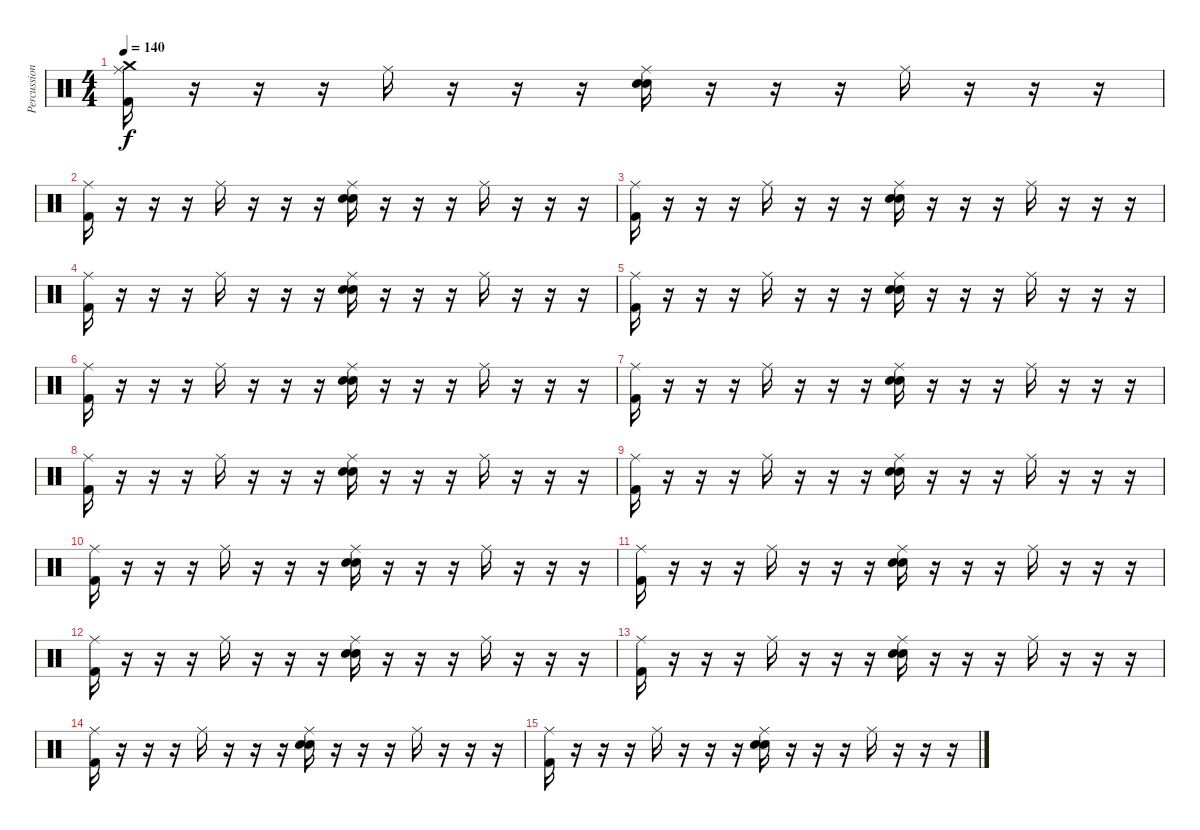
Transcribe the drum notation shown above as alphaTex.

\track ("Percussion" "Percussion") {instrument percussion}
\staff {score}
\articulation defaults
\ts (4 4)
\tempo 140
\clef neutral
\ks c
("Crash medium (hit)" "Ride (middle)" "Kick (hit) 2").16{dy f} r.16 r.16 r.16 "Ride (middle)".16 r.16 r.16 r.16 ("Ride (middle)" "Hand Clap (hit)" "Snare (hit) 2").16 r.16 r.16 r.16 "Ride (middle)".16 r.16 r.16 r.16 |
("Ride (middle)" "Kick (hit) 2").16 r.16 r.16 r.16 "Ride (middle)".16 r.16 r.16 r.16 ("Ride (middle)" "Hand Clap (hit)" "Snare (hit) 2").16 r.16 r.16 r.16 "Ride (middle)".16 r.16 r.16 r.16 |
("Ride (middle)" "Kick (hit) 2").16 r.16 r.16 r.16 "Ride (middle)".16 r.16 r.16 r.16 ("Ride (middle)" "Hand Clap (hit)" "Snare (hit) 2").16 r.16 r.16 r.16 "Ride (middle)".16 r.16 r.16 r.16 |
("Ride (middle)" "Kick (hit) 2").16 r.16 r.16 r.16 "Ride (middle)".16 r.16 r.16 r.16 ("Ride (middle)" "Hand Clap (hit)" "Snare (hit) 2").16 r.16 r.16 r.16 "Ride (middle)".16 r.16 r.16 r.16 |
("Ride (middle)" "Kick (hit) 2").16 r.16 r.16 r.16 "Ride (middle)".16 r.16 r.16 r.16 ("Ride (middle)" "Hand Clap (hit)" "Snare (hit) 2").16 r.16 r.16 r.16 "Ride (middle)".16 r.16 r.16 r.16 |
("Ride (middle)" "Kick (hit) 2").16 r.16 r.16 r.16 "Ride (middle)".16 r.16 r.16 r.16 ("Ride (middle)" "Hand Clap (hit)" "Snare (hit) 2").16 r.16 r.16 r.16 "Ride (middle)".16 r.16 r.16 r.16 |
("Ride (middle)" "Kick (hit) 2").16 r.16 r.16 r.16 "Ride (middle)".16 r.16 r.16 r.16 ("Ride (middle)" "Hand Clap (hit)" "Snare (hit) 2").16 r.16 r.16 r.16 "Ride (middle)".16 r.16 r.16 r.16 |
("Ride (middle)" "Kick (hit) 2").16 r.16 r.16 r.16 "Ride (middle)".16 r.16 r.16 r.16 ("Ride (middle)" "Hand Clap (hit)" "Snare (hit) 2").16 r.16 r.16 r.16 "Ride (middle)".16 r.16 r.16 r.16 |
("Ride (middle)" "Kick (hit) 2").16 r.16 r.16 r.16 "Ride (middle)".16 r.16 r.16 r.16 ("Ride (middle)" "Hand Clap (hit)" "Snare (hit) 2").16 r.16 r.16 r.16 "Ride (middle)".16 r.16 r.16 r.16 |
("Ride (middle)" "Kick (hit) 2").16 r.16 r.16 r.16 "Ride (middle)".16 r.16 r.16 r.16 ("Ride (middle)" "Hand Clap (hit)" "Snare (hit) 2").16 r.16 r.16 r.16 "Ride (middle)".16 r.16 r.16 r.16 |
("Ride (middle)" "Kick (hit) 2").16 r.16 r.16 r.16 "Ride (middle)".16 r.16 r.16 r.16 ("Ride (middle)" "Hand Clap (hit)" "Snare (hit) 2").16 r.16 r.16 r.16 "Ride (middle)".16 r.16 r.16 r.16 |
("Ride (middle)" "Kick (hit) 2").16 r.16 r.16 r.16 "Ride (middle)".16 r.16 r.16 r.16 ("Ride (middle)" "Hand Clap (hit)" "Snare (hit) 2").16 r.16 r.16 r.16 "Ride (middle)".16 r.16 r.16 r.16 |
("Ride (middle)" "Kick (hit) 2").16 r.16 r.16 r.16 "Ride (middle)".16 r.16 r.16 r.16 ("Ride (middle)" "Hand Clap (hit)" "Snare (hit) 2").16 r.16 r.16 r.16 "Ride (middle)".16 r.16 r.16 r.16 |
("Ride (middle)" "Kick (hit) 2").16 r.16 r.16 r.16 "Ride (middle)".16 r.16 r.16 r.16 ("Ride (middle)" "Hand Clap (hit)" "Snare (hit) 2").16 r.16 r.16 r.16 "Ride (middle)".16 r.16 r.16 r.16 |
("Ride (middle)" "Kick (hit) 2").16 r.16 r.16 r.16 "Ride (middle)".16 r.16 r.16 r.16 ("Ride (middle)" "Hand Clap (hit)" "Snare (hit) 2").16 r.16 r.16 r.16 "Ride (middle)".16 r.16 r.16 r.16
